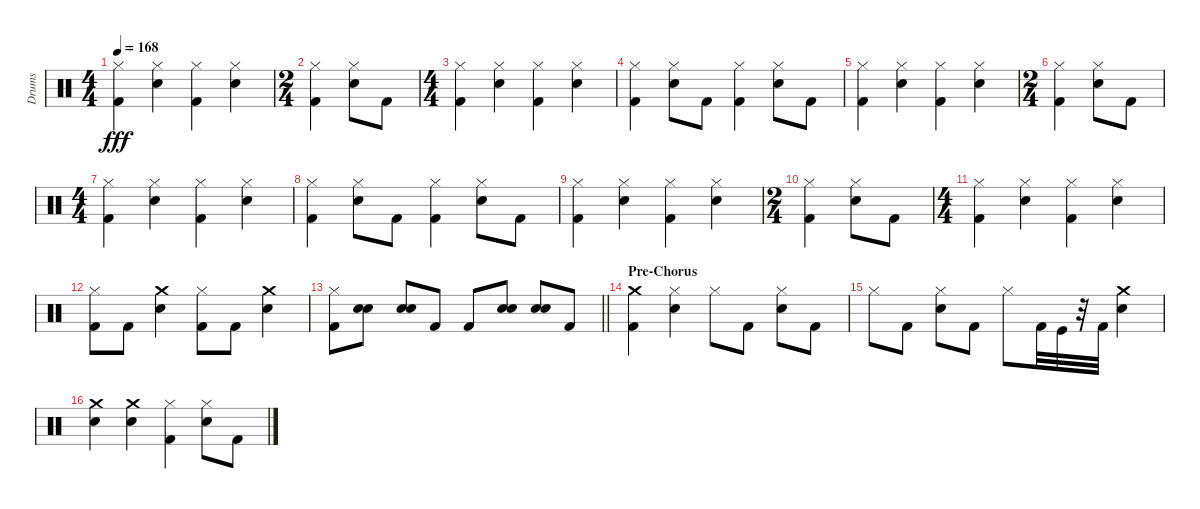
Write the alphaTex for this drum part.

\track ("Drums" "Drums") {instrument percussion}
\staff {score}
\articulation defaults
\ts (4 4)
\tempo 168
\clef neutral
\ks c
("Hi-Hat (closed)" "Kick (hit) 2").4{dy fff} ("Hi-Hat (closed)" "Snare (hit) 2").4 ("Hi-Hat (closed)" "Kick (hit) 2").4 ("Snare (hit) 2" "Hi-Hat (closed)").4 |
\ts (2 4)
("Hi-Hat (closed)" "Kick (hit) 2").4 ("Snare (hit) 2" "Hi-Hat (closed)").8 "Kick (hit) 2".8 |
\ts (4 4)
("Kick (hit) 2" "Hi-Hat (closed)").4 ("Snare (hit) 2" "Hi-Hat (closed)").4 ("Kick (hit) 2" "Hi-Hat (closed)").4 ("Snare (hit) 2" "Hi-Hat (closed)").4 |
("Hi-Hat (closed)" "Kick (hit) 2").4 ("Snare (hit) 2" "Hi-Hat (closed)").8 "Kick (hit) 2".8 ("Kick (hit) 2" "Hi-Hat (closed)").4 ("Hi-Hat (closed)" "Snare (hit) 2").8 "Kick (hit) 2".8 |
("Hi-Hat (closed)" "Kick (hit) 2").4 ("Hi-Hat (closed)" "Snare (hit) 2").4 ("Hi-Hat (closed)" "Kick (hit) 2").4 ("Snare (hit) 2" "Hi-Hat (closed)").4 |
\ts (2 4)
("Hi-Hat (closed)" "Kick (hit) 2").4 ("Snare (hit) 2" "Hi-Hat (closed)").8 "Kick (hit) 2".8 |
\ts (4 4)
("Kick (hit) 2" "Hi-Hat (closed)").4 ("Snare (hit) 2" "Hi-Hat (closed)").4 ("Kick (hit) 2" "Hi-Hat (closed)").4 ("Snare (hit) 2" "Hi-Hat (closed)").4 |
("Hi-Hat (closed)" "Kick (hit) 2").4 ("Snare (hit) 2" "Hi-Hat (closed)").8 "Kick (hit) 2".8 ("Kick (hit) 2" "Hi-Hat (closed)").4 ("Hi-Hat (closed)" "Snare (hit) 2").8 "Kick (hit) 2".8 |
("Hi-Hat (closed)" "Kick (hit) 2").4 ("Hi-Hat (closed)" "Snare (hit) 2").4 ("Hi-Hat (closed)" "Kick (hit) 2").4 ("Snare (hit) 2" "Hi-Hat (closed)").4 |
\ts (2 4)
("Hi-Hat (closed)" "Kick (hit) 2").4 ("Snare (hit) 2" "Hi-Hat (closed)").8 "Kick (hit) 2".8 |
\ts (4 4)
("Kick (hit) 2" "Hi-Hat (closed)").4 ("Snare (hit) 2" "Hi-Hat (closed)").4 ("Kick (hit) 2" "Hi-Hat (closed)").4 ("Snare (hit) 2" "Hi-Hat (closed)").4 |
("Kick (hit) 2" "Hi-Hat (closed)").8 "Kick (hit) 2".8 ("Crash medium (hit)" "Snare (hit) 2").4 ("Kick (hit) 2" "Hi-Hat (closed)").8 "Kick (hit) 2".8 ("Crash medium (hit)" "Snare (hit) 2").4 |
\barLineRight lightlight
("Kick (hit) 2" "Hi-Hat (closed)").8 ("Snare (hit) 2" "Snare (hit) 2").8 ("Snare (hit) 2" "Snare (hit) 2").8 "Kick (hit) 2".8 "Kick (hit) 2".8 ("Snare (hit) 2" "Snare (hit) 2").8 ("Snare (hit) 2" "Snare (hit) 2").8 "Kick (hit) 2".8 |
\section ("" "Pre-Chorus")
("Kick (hit) 2" "Crash medium (hit)").4 ("Hi-Hat (closed)" "Snare (hit) 2").4 "Hi-Hat (closed)".8 "Kick (hit) 2".8 ("Snare (hit) 2" "Hi-Hat (closed)").8 "Kick (hit) 2".8 |
"Hi-Hat (closed)".8 "Kick (hit) 2".8 ("Snare (hit) 2" "Hi-Hat (closed)").8 "Kick (hit) 2".8 "Hi-Hat (closed)".8 "Kick (hit) 2".32 "Kick (hit)".32 r.32 "Kick (hit) 2".32 ("Crash medium (hit)" "Snare (hit) 2").4 |
("Crash medium (hit)" "Snare (hit) 2").4 ("Crash medium (hit)" "Snare (hit) 2").4 ("Hi-Hat (closed)" "Kick (hit) 2").4 ("Snare (hit) 2" "Hi-Hat (closed)").8 "Kick (hit) 2".8
